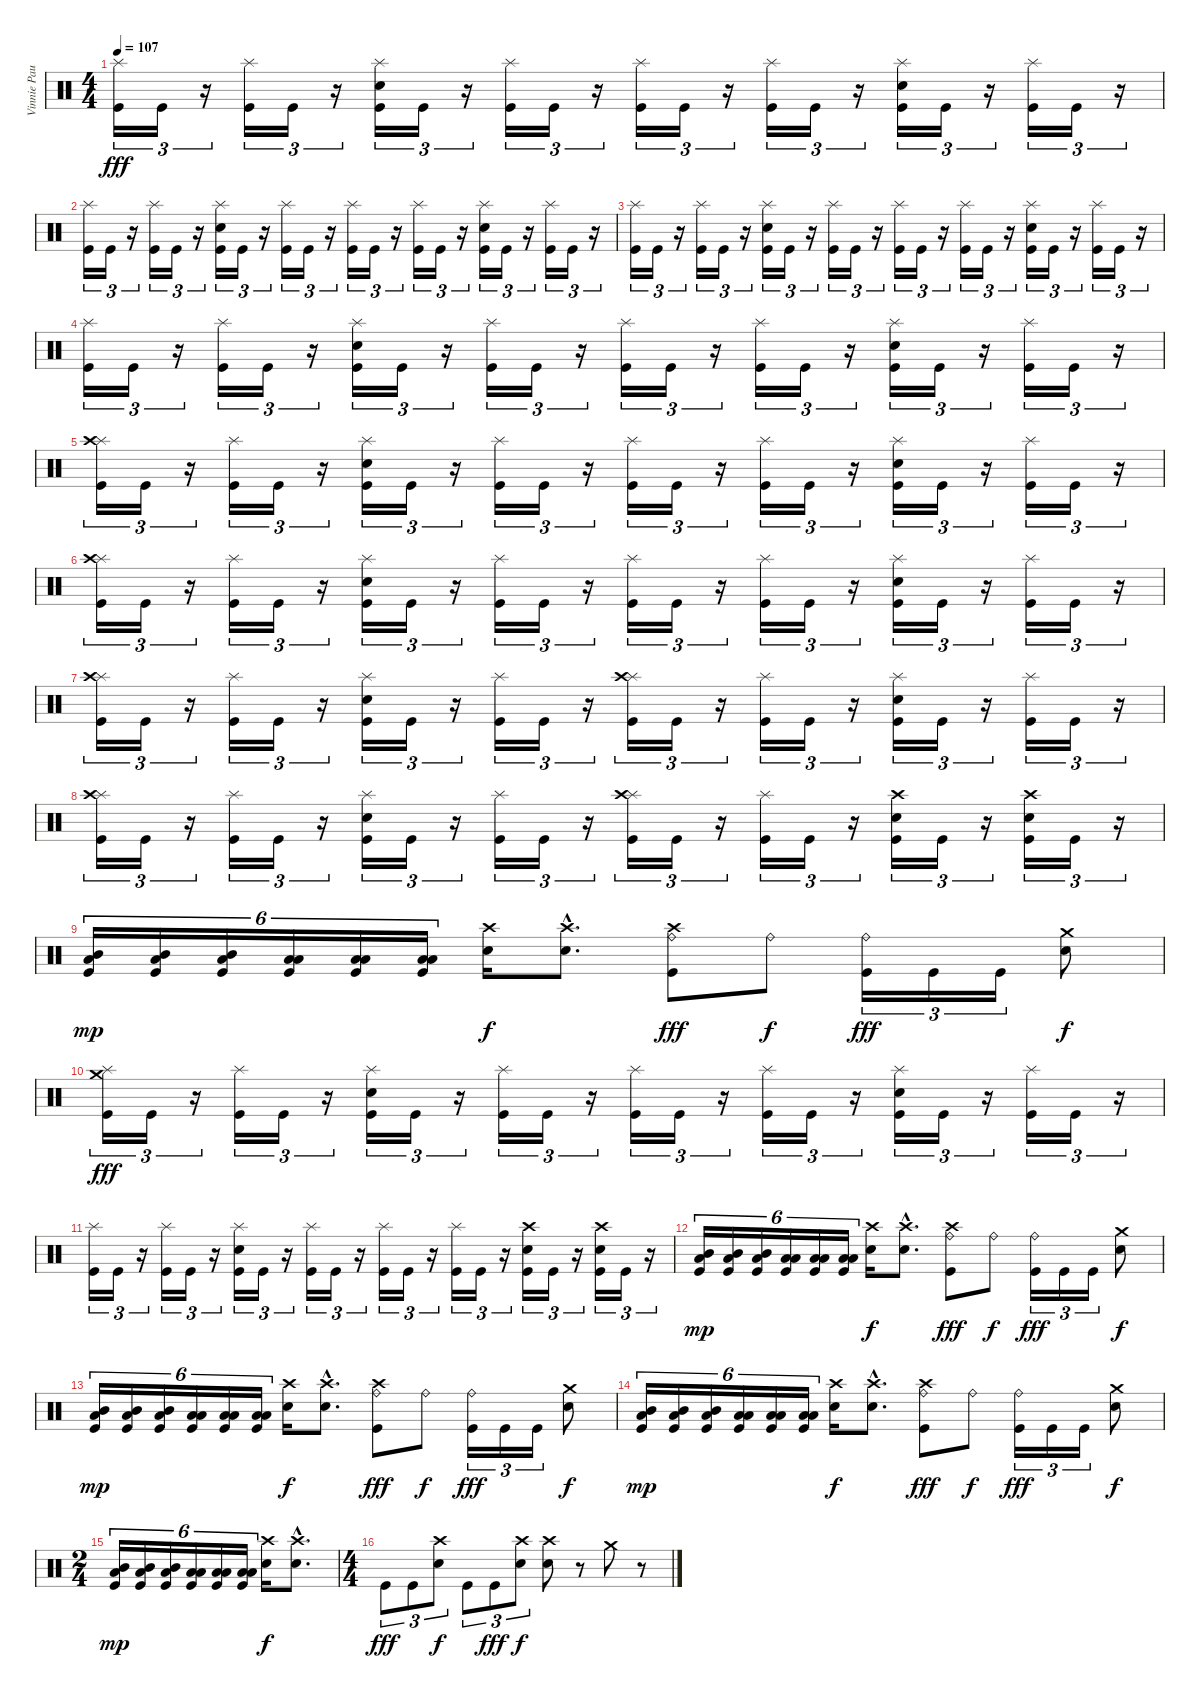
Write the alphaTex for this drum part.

\track ("Vinnie Paul" "Vinnie Pau") {instrument percussion}
\staff {score}
\articulation defaults
\ts (4 4)
\tempo 107
\clef neutral
\ks c
("Splash (hit)" "Kick (hit)").16{tu (3 2) dy fff} "Kick (hit)".16{tu (3 2)} r.16{tu (3 2)} ("Splash (hit)" "Kick (hit)").16{tu (3 2)} "Kick (hit)".16{tu (3 2)} r.16{tu (3 2)} ("Splash (hit)" "Kick (hit)" "Electric Snare (hit)").16{tu (3 2)} "Kick (hit)".16{tu (3 2)} r.16{tu (3 2)} ("Splash (hit)" "Kick (hit)").16{tu (3 2)} "Kick (hit)".16{tu (3 2)} r.16{tu (3 2)} ("Splash (hit)" "Kick (hit)").16{tu (3 2)} "Kick (hit)".16{tu (3 2)} r.16{tu (3 2)} ("Splash (hit)" "Kick (hit)").16{tu (3 2)} "Kick (hit)".16{tu (3 2)} r.16{tu (3 2)} ("Splash (hit)" "Kick (hit)" "Electric Snare (hit)").16{tu (3 2)} "Kick (hit)".16{tu (3 2)} r.16{tu (3 2)} ("Splash (hit)" "Kick (hit)").16{tu (3 2)} "Kick (hit)".16{tu (3 2)} r.16{tu (3 2)} |
("Splash (hit)" "Kick (hit)").16{tu (3 2)} "Kick (hit)".16{tu (3 2)} r.16{tu (3 2)} ("Splash (hit)" "Kick (hit)").16{tu (3 2)} "Kick (hit)".16{tu (3 2)} r.16{tu (3 2)} ("Splash (hit)" "Kick (hit)" "Electric Snare (hit)").16{tu (3 2)} "Kick (hit)".16{tu (3 2)} r.16{tu (3 2)} ("Splash (hit)" "Kick (hit)").16{tu (3 2)} "Kick (hit)".16{tu (3 2)} r.16{tu (3 2)} ("Splash (hit)" "Kick (hit)").16{tu (3 2)} "Kick (hit)".16{tu (3 2)} r.16{tu (3 2)} ("Splash (hit)" "Kick (hit)").16{tu (3 2)} "Kick (hit)".16{tu (3 2)} r.16{tu (3 2)} ("Splash (hit)" "Kick (hit)" "Electric Snare (hit)").16{tu (3 2)} "Kick (hit)".16{tu (3 2)} r.16{tu (3 2)} ("Splash (hit)" "Kick (hit)").16{tu (3 2)} "Kick (hit)".16{tu (3 2)} r.16{tu (3 2)} |
("Splash (hit)" "Kick (hit)").16{tu (3 2)} "Kick (hit)".16{tu (3 2)} r.16{tu (3 2)} ("Splash (hit)" "Kick (hit)").16{tu (3 2)} "Kick (hit)".16{tu (3 2)} r.16{tu (3 2)} ("Splash (hit)" "Kick (hit)" "Electric Snare (hit)").16{tu (3 2)} "Kick (hit)".16{tu (3 2)} r.16{tu (3 2)} ("Splash (hit)" "Kick (hit)").16{tu (3 2)} "Kick (hit)".16{tu (3 2)} r.16{tu (3 2)} ("Splash (hit)" "Kick (hit)").16{tu (3 2)} "Kick (hit)".16{tu (3 2)} r.16{tu (3 2)} ("Splash (hit)" "Kick (hit)").16{tu (3 2)} "Kick (hit)".16{tu (3 2)} r.16{tu (3 2)} ("Splash (hit)" "Kick (hit)" "Electric Snare (hit)").16{tu (3 2)} "Kick (hit)".16{tu (3 2)} r.16{tu (3 2)} ("Splash (hit)" "Kick (hit)").16{tu (3 2)} "Kick (hit)".16{tu (3 2)} r.16{tu (3 2)} |
("Splash (hit)" "Kick (hit)").16{tu (3 2)} "Kick (hit)".16{tu (3 2)} r.16{tu (3 2)} ("Splash (hit)" "Kick (hit)").16{tu (3 2)} "Kick (hit)".16{tu (3 2)} r.16{tu (3 2)} ("Splash (hit)" "Kick (hit)" "Electric Snare (hit)").16{tu (3 2)} "Kick (hit)".16{tu (3 2)} r.16{tu (3 2)} ("Splash (hit)" "Kick (hit)").16{tu (3 2)} "Kick (hit)".16{tu (3 2)} r.16{tu (3 2)} ("Splash (hit)" "Kick (hit)").16{tu (3 2)} "Kick (hit)".16{tu (3 2)} r.16{tu (3 2)} ("Splash (hit)" "Kick (hit)").16{tu (3 2)} "Kick (hit)".16{tu (3 2)} r.16{tu (3 2)} ("Splash (hit)" "Kick (hit)" "Electric Snare (hit)").16{tu (3 2)} "Kick (hit)".16{tu (3 2)} r.16{tu (3 2)} ("Splash (hit)" "Kick (hit)").16{tu (3 2)} "Kick (hit)".16{tu (3 2)} r.16{tu (3 2)} |
("Splash (hit)" "Crash high (hit)" "Kick (hit)").16{tu (3 2)} "Kick (hit)".16{tu (3 2)} r.16{tu (3 2)} ("Splash (hit)" "Kick (hit)").16{tu (3 2)} "Kick (hit)".16{tu (3 2)} r.16{tu (3 2)} ("Splash (hit)" "Kick (hit)" "Electric Snare (hit)").16{tu (3 2)} "Kick (hit)".16{tu (3 2)} r.16{tu (3 2)} ("Splash (hit)" "Kick (hit)").16{tu (3 2)} "Kick (hit)".16{tu (3 2)} r.16{tu (3 2)} ("Splash (hit)" "Kick (hit)").16{tu (3 2)} "Kick (hit)".16{tu (3 2)} r.16{tu (3 2)} ("Splash (hit)" "Kick (hit)").16{tu (3 2)} "Kick (hit)".16{tu (3 2)} r.16{tu (3 2)} ("Splash (hit)" "Kick (hit)" "Electric Snare (hit)").16{tu (3 2)} "Kick (hit)".16{tu (3 2)} r.16{tu (3 2)} ("Splash (hit)" "Kick (hit)").16{tu (3 2)} "Kick (hit)".16{tu (3 2)} r.16{tu (3 2)} |
("Splash (hit)" "Crash high (hit)" "Kick (hit)").16{tu (3 2)} "Kick (hit)".16{tu (3 2)} r.16{tu (3 2)} ("Splash (hit)" "Kick (hit)").16{tu (3 2)} "Kick (hit)".16{tu (3 2)} r.16{tu (3 2)} ("Splash (hit)" "Kick (hit)" "Electric Snare (hit)").16{tu (3 2)} "Kick (hit)".16{tu (3 2)} r.16{tu (3 2)} ("Splash (hit)" "Kick (hit)").16{tu (3 2)} "Kick (hit)".16{tu (3 2)} r.16{tu (3 2)} ("Splash (hit)" "Kick (hit)").16{tu (3 2)} "Kick (hit)".16{tu (3 2)} r.16{tu (3 2)} ("Splash (hit)" "Kick (hit)").16{tu (3 2)} "Kick (hit)".16{tu (3 2)} r.16{tu (3 2)} ("Splash (hit)" "Kick (hit)" "Electric Snare (hit)").16{tu (3 2)} "Kick (hit)".16{tu (3 2)} r.16{tu (3 2)} ("Splash (hit)" "Kick (hit)").16{tu (3 2)} "Kick (hit)".16{tu (3 2)} r.16{tu (3 2)} |
("Splash (hit)" "Crash high (hit)" "Kick (hit)").16{tu (3 2)} "Kick (hit)".16{tu (3 2)} r.16{tu (3 2)} ("Splash (hit)" "Kick (hit)").16{tu (3 2)} "Kick (hit)".16{tu (3 2)} r.16{tu (3 2)} ("Splash (hit)" "Kick (hit)" "Electric Snare (hit)").16{tu (3 2)} "Kick (hit)".16{tu (3 2)} r.16{tu (3 2)} ("Splash (hit)" "Kick (hit)").16{tu (3 2)} "Kick (hit)".16{tu (3 2)} r.16{tu (3 2)} ("Splash (hit)" "Crash high (hit)" "Kick (hit)").16{tu (3 2)} "Kick (hit)".16{tu (3 2)} r.16{tu (3 2)} ("Splash (hit)" "Kick (hit)").16{tu (3 2)} "Kick (hit)".16{tu (3 2)} r.16{tu (3 2)} ("Splash (hit)" "Kick (hit)" "Electric Snare (hit)").16{tu (3 2)} "Kick (hit)".16{tu (3 2)} r.16{tu (3 2)} ("Splash (hit)" "Kick (hit)").16{tu (3 2)} "Kick (hit)".16{tu (3 2)} r.16{tu (3 2)} |
("Splash (hit)" "Crash high (hit)" "Kick (hit)").16{tu (3 2)} "Kick (hit)".16{tu (3 2)} r.16{tu (3 2)} ("Splash (hit)" "Kick (hit)").16{tu (3 2)} "Kick (hit)".16{tu (3 2)} r.16{tu (3 2)} ("Splash (hit)" "Kick (hit)" "Electric Snare (hit)").16{tu (3 2)} "Kick (hit)".16{tu (3 2)} r.16{tu (3 2)} ("Splash (hit)" "Kick (hit)").16{tu (3 2)} "Kick (hit)".16{tu (3 2)} r.16{tu (3 2)} ("Splash (hit)" "Crash high (hit)" "Kick (hit)").16{tu (3 2)} "Kick (hit)".16{tu (3 2)} r.16{tu (3 2)} ("Splash (hit)" "Kick (hit)").16{tu (3 2)} "Kick (hit)".16{tu (3 2)} r.16{tu (3 2)} ("Crash high (hit)" "Kick (hit)" "Electric Snare (hit)").16{tu (3 2)} "Kick (hit)".16{tu (3 2)} r.16{tu (3 2)} ("Crash high (hit)" "Kick (hit)" "Electric Snare (hit)").16{tu (3 2)} "Kick (hit)".16{tu (3 2)} r.16{tu (3 2)} |
("Kick (hit)" "Mid Tom (hit)" "Low Tom (hit)").16{tu (6 4) dy mp} ("Kick (hit)" "Mid Tom (hit)" "Low Tom (hit)").16{tu (6 4)} ("Kick (hit)" "Mid Tom (hit)" "Low Tom (hit)").16{tu (6 4)} ("Kick (hit)" "Low Tom (hit)" "Low Tom (hit)").16{tu (6 4)} ("Kick (hit)" "Low Tom (hit)" "Low Tom (hit)").16{tu (6 4)} ("Kick (hit)" "Low Tom (hit)" "Low Tom (hit)").16{tu (6 4)} ("Crash high (hit)" "Electric Snare (hit)").16{dy f} ("Crash high (hit)"{hac} "Electric Snare (hit)"{hac}).8{d} ("Crash high (hit)" "Ride (bell)" "Kick (hit)").8{dy fff} "Ride (bell)".8{dy f} ("Ride (bell)" "Kick (hit)").16{tu (3 2) dy fff} "Kick (hit)".16{tu (3 2)} "Kick (hit)".16{tu (3 2)} ("Crash medium (hit)" "Electric Snare (hit)").8{dy f} |
("Splash (hit)" "Crash medium (hit)" "Kick (hit)").16{tu (3 2) dy fff} "Kick (hit)".16{tu (3 2)} r.16{tu (3 2)} ("Splash (hit)" "Kick (hit)").16{tu (3 2)} "Kick (hit)".16{tu (3 2)} r.16{tu (3 2)} ("Splash (hit)" "Kick (hit)" "Electric Snare (hit)").16{tu (3 2)} "Kick (hit)".16{tu (3 2)} r.16{tu (3 2)} ("Splash (hit)" "Kick (hit)").16{tu (3 2)} "Kick (hit)".16{tu (3 2)} r.16{tu (3 2)} ("Splash (hit)" "Kick (hit)").16{tu (3 2)} "Kick (hit)".16{tu (3 2)} r.16{tu (3 2)} ("Splash (hit)" "Kick (hit)").16{tu (3 2)} "Kick (hit)".16{tu (3 2)} r.16{tu (3 2)} ("Splash (hit)" "Kick (hit)" "Electric Snare (hit)").16{tu (3 2)} "Kick (hit)".16{tu (3 2)} r.16{tu (3 2)} ("Splash (hit)" "Kick (hit)").16{tu (3 2)} "Kick (hit)".16{tu (3 2)} r.16{tu (3 2)} |
("Splash (hit)" "Kick (hit)").16{tu (3 2)} "Kick (hit)".16{tu (3 2)} r.16{tu (3 2)} ("Splash (hit)" "Kick (hit)").16{tu (3 2)} "Kick (hit)".16{tu (3 2)} r.16{tu (3 2)} ("Splash (hit)" "Kick (hit)" "Electric Snare (hit)").16{tu (3 2)} "Kick (hit)".16{tu (3 2)} r.16{tu (3 2)} ("Splash (hit)" "Kick (hit)").16{tu (3 2)} "Kick (hit)".16{tu (3 2)} r.16{tu (3 2)} ("Splash (hit)" "Kick (hit)").16{tu (3 2)} "Kick (hit)".16{tu (3 2)} r.16{tu (3 2)} ("Splash (hit)" "Kick (hit)").16{tu (3 2)} "Kick (hit)".16{tu (3 2)} r.16{tu (3 2)} ("Crash high (hit)" "Kick (hit)" "Electric Snare (hit)").16{tu (3 2)} "Kick (hit)".16{tu (3 2)} r.16{tu (3 2)} ("Crash high (hit)" "Kick (hit)" "Electric Snare (hit)").16{tu (3 2)} "Kick (hit)".16{tu (3 2)} r.16{tu (3 2)} |
("Kick (hit)" "Mid Tom (hit)" "Low Tom (hit)").16{tu (6 4) dy mp} ("Kick (hit)" "Mid Tom (hit)" "Low Tom (hit)").16{tu (6 4)} ("Kick (hit)" "Mid Tom (hit)" "Low Tom (hit)").16{tu (6 4)} ("Kick (hit)" "Low Tom (hit)" "Low Tom (hit)").16{tu (6 4)} ("Kick (hit)" "Low Tom (hit)" "Low Tom (hit)").16{tu (6 4)} ("Kick (hit)" "Low Tom (hit)" "Low Tom (hit)").16{tu (6 4)} ("Crash high (hit)" "Electric Snare (hit)").16{dy f} ("Crash high (hit)"{hac} "Electric Snare (hit)"{hac}).8{d} ("Crash high (hit)" "Ride (bell)" "Kick (hit)").8{dy fff} "Ride (bell)".8{dy f} ("Ride (bell)" "Kick (hit)").16{tu (3 2) dy fff} "Kick (hit)".16{tu (3 2)} "Kick (hit)".16{tu (3 2)} ("Crash medium (hit)" "Electric Snare (hit)").8{dy f} |
("Kick (hit)" "Mid Tom (hit)" "Low Tom (hit)").16{tu (6 4) dy mp} ("Kick (hit)" "Mid Tom (hit)" "Low Tom (hit)").16{tu (6 4)} ("Kick (hit)" "Mid Tom (hit)" "Low Tom (hit)").16{tu (6 4)} ("Kick (hit)" "Low Tom (hit)" "Low Tom (hit)").16{tu (6 4)} ("Kick (hit)" "Low Tom (hit)" "Low Tom (hit)").16{tu (6 4)} ("Kick (hit)" "Low Tom (hit)" "Low Tom (hit)").16{tu (6 4)} ("Crash high (hit)" "Electric Snare (hit)").16{dy f} ("Crash high (hit)"{hac} "Electric Snare (hit)"{hac}).8{d} ("Crash high (hit)" "Ride (bell)" "Kick (hit)").8{dy fff} "Ride (bell)".8{dy f} ("Ride (bell)" "Kick (hit)").16{tu (3 2) dy fff} "Kick (hit)".16{tu (3 2)} "Kick (hit)".16{tu (3 2)} ("Crash medium (hit)" "Electric Snare (hit)").8{dy f} |
("Kick (hit)" "Mid Tom (hit)" "Low Tom (hit)").16{tu (6 4) dy mp} ("Kick (hit)" "Mid Tom (hit)" "Low Tom (hit)").16{tu (6 4)} ("Kick (hit)" "Mid Tom (hit)" "Low Tom (hit)").16{tu (6 4)} ("Kick (hit)" "Low Tom (hit)" "Low Tom (hit)").16{tu (6 4)} ("Kick (hit)" "Low Tom (hit)" "Low Tom (hit)").16{tu (6 4)} ("Kick (hit)" "Low Tom (hit)" "Low Tom (hit)").16{tu (6 4)} ("Crash high (hit)" "Electric Snare (hit)").16{dy f} ("Crash high (hit)"{hac} "Electric Snare (hit)"{hac}).8{d} ("Crash high (hit)" "Ride (bell)" "Kick (hit)").8{dy fff} "Ride (bell)".8{dy f} ("Ride (bell)" "Kick (hit)").16{tu (3 2) dy fff} "Kick (hit)".16{tu (3 2)} "Kick (hit)".16{tu (3 2)} ("Crash medium (hit)" "Electric Snare (hit)").8{dy f} |
\ts (2 4)
("Kick (hit)" "Mid Tom (hit)" "Low Tom (hit)").16{tu (6 4) dy mp} ("Kick (hit)" "Mid Tom (hit)" "Low Tom (hit)").16{tu (6 4)} ("Kick (hit)" "Mid Tom (hit)" "Low Tom (hit)").16{tu (6 4)} ("Kick (hit)" "Low Tom (hit)" "Low Tom (hit)").16{tu (6 4)} ("Kick (hit)" "Low Tom (hit)" "Low Tom (hit)").16{tu (6 4)} ("Kick (hit)" "Low Tom (hit)" "Low Tom (hit)").16{tu (6 4)} ("Crash high (hit)" "Electric Snare (hit)").16{dy f} ("Crash high (hit)"{hac} "Electric Snare (hit)"{hac}).8{d} |
\ts (4 4)
"Kick (hit)".8{tu (3 2) dy fff} "Kick (hit)".8{tu (3 2)} ("Crash high (hit)" "Electric Snare (hit)").8{tu (3 2) dy f} "Kick (hit)".8{tu (3 2)} "Kick (hit)".8{tu (3 2) dy fff} ("Crash high (hit)" "Electric Snare (hit)").8{tu (3 2) dy f} ("Crash high (hit)" "Electric Snare (hit)").8 r.8 "Crash medium (hit)".8 r.8
